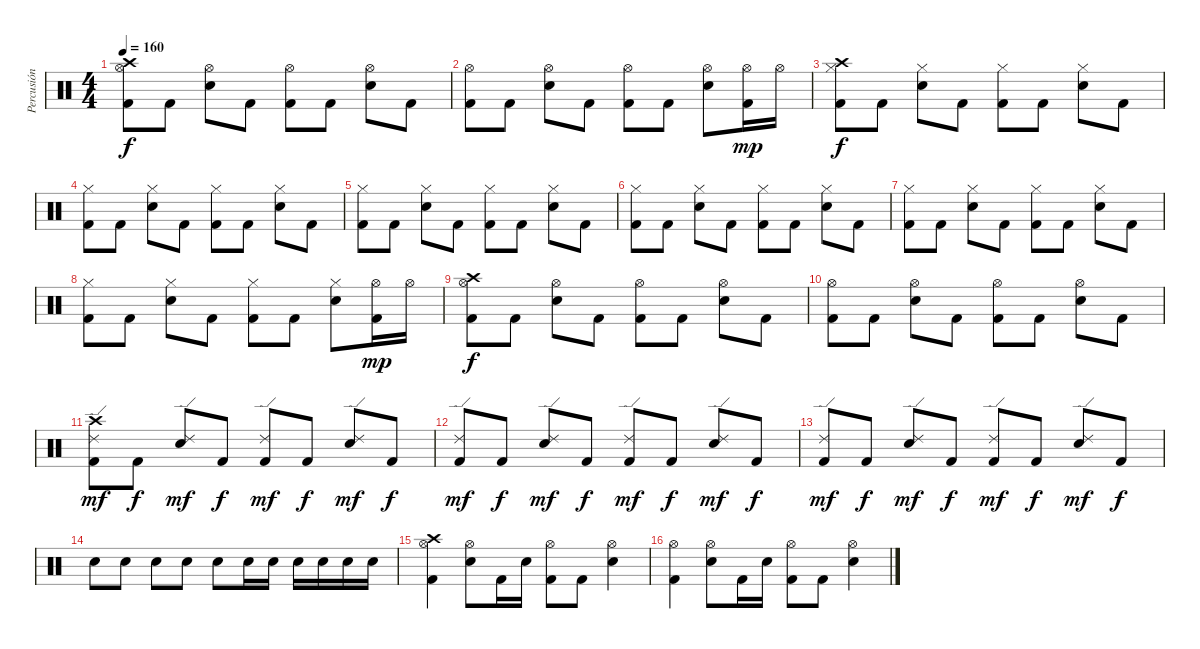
\track ("Percusión" "Percusión") {instrument percussion}
\staff {score}
\articulation defaults
\ts (4 4)
\tempo 160
\clef neutral
\ks c
("Crash high (hit)" "Hi-Hat (open)" "Kick (hit) 2").8{dy f} "Kick (hit) 2".8 ("Hi-Hat (open)" "Snare (hit) 2").8 "Kick (hit) 2".8 ("Hi-Hat (open)" "Kick (hit) 2").8 "Kick (hit) 2".8 ("Hi-Hat (open)" "Snare (hit) 2").8 "Kick (hit) 2".8 |
("Hi-Hat (open)" "Kick (hit) 2").8 "Kick (hit) 2".8 ("Hi-Hat (open)" "Snare (hit) 2").8 "Kick (hit) 2".8 ("Hi-Hat (open)" "Kick (hit) 2").8 "Kick (hit) 2".8 ("Hi-Hat (open)" "Snare (hit) 2").8 ("Hi-Hat (open)" "Kick (hit) 2").16{dy mp} "Hi-Hat (open)".16 |
("Crash high (hit)" "Hi-Hat (closed)" "Kick (hit) 2").8{dy f} "Kick (hit) 2".8 ("Hi-Hat (closed)" "Snare (hit) 2").8 "Kick (hit) 2".8 ("Hi-Hat (closed)" "Kick (hit) 2").8 "Kick (hit) 2".8 ("Hi-Hat (closed)" "Snare (hit) 2").8 "Kick (hit) 2".8 |
("Hi-Hat (closed)" "Kick (hit) 2").8 "Kick (hit) 2".8 ("Hi-Hat (closed)" "Snare (hit) 2").8 "Kick (hit) 2".8 ("Hi-Hat (closed)" "Kick (hit) 2").8 "Kick (hit) 2".8 ("Hi-Hat (closed)" "Snare (hit) 2").8 "Kick (hit) 2".8 |
("Hi-Hat (closed)" "Kick (hit) 2").8 "Kick (hit) 2".8 ("Hi-Hat (closed)" "Snare (hit) 2").8 "Kick (hit) 2".8 ("Hi-Hat (closed)" "Kick (hit) 2").8 "Kick (hit) 2".8 ("Hi-Hat (closed)" "Snare (hit) 2").8 "Kick (hit) 2".8 |
("Hi-Hat (closed)" "Kick (hit) 2").8 "Kick (hit) 2".8 ("Hi-Hat (closed)" "Snare (hit) 2").8 "Kick (hit) 2".8 ("Hi-Hat (closed)" "Kick (hit) 2").8 "Kick (hit) 2".8 ("Hi-Hat (closed)" "Snare (hit) 2").8 "Kick (hit) 2".8 |
("Hi-Hat (closed)" "Kick (hit) 2").8 "Kick (hit) 2".8 ("Hi-Hat (closed)" "Snare (hit) 2").8 "Kick (hit) 2".8 ("Hi-Hat (closed)" "Kick (hit) 2").8 "Kick (hit) 2".8 ("Hi-Hat (closed)" "Snare (hit) 2").8 "Kick (hit) 2".8 |
("Hi-Hat (closed)" "Kick (hit) 2").8 "Kick (hit) 2".8 ("Hi-Hat (closed)" "Snare (hit) 2").8 "Kick (hit) 2".8 ("Hi-Hat (closed)" "Kick (hit) 2").8 "Kick (hit) 2".8 ("Hi-Hat (closed)" "Snare (hit) 2").8 ("Hi-Hat (open)" "Kick (hit) 2").16{dy mp} "Hi-Hat (open)".16 |
("Crash high (hit)" "Hi-Hat (open)" "Kick (hit) 2").8{dy f} "Kick (hit) 2".8 ("Hi-Hat (open)" "Snare (hit) 2").8 "Kick (hit) 2".8 ("Hi-Hat (open)" "Kick (hit) 2").8 "Kick (hit) 2".8 ("Hi-Hat (open)" "Snare (hit) 2").8 "Kick (hit) 2".8 |
("Hi-Hat (open)" "Kick (hit) 2").8 "Kick (hit) 2".8 ("Hi-Hat (open)" "Snare (hit) 2").8 "Kick (hit) 2".8 ("Hi-Hat (open)" "Kick (hit) 2").8 "Kick (hit) 2".8 ("Hi-Hat (open)" "Snare (hit) 2").8 "Kick (hit) 2".8 |
("Crash high (hit)" "Ride (edge) 2" "Kick (hit) 2").8{dy mf} "Kick (hit) 2".8{dy f} ("Ride (edge) 2" "Snare (hit) 2").8{dy mf} "Kick (hit) 2".8{dy f} ("Ride (edge) 2" "Kick (hit) 2").8{dy mf} "Kick (hit) 2".8{dy f} ("Ride (edge) 2" "Snare (hit) 2").8{dy mf} "Kick (hit) 2".8{dy f} |
("Ride (edge) 2" "Kick (hit) 2").8{dy mf} "Kick (hit) 2".8{dy f} ("Ride (edge) 2" "Snare (hit) 2").8{dy mf} "Kick (hit) 2".8{dy f} ("Ride (edge) 2" "Kick (hit) 2").8{dy mf} "Kick (hit) 2".8{dy f} ("Ride (edge) 2" "Snare (hit) 2").8{dy mf} "Kick (hit) 2".8{dy f} |
("Ride (edge) 2" "Kick (hit) 2").8{dy mf} "Kick (hit) 2".8{dy f} ("Ride (edge) 2" "Snare (hit) 2").8{dy mf} "Kick (hit) 2".8{dy f} ("Ride (edge) 2" "Kick (hit) 2").8{dy mf} "Kick (hit) 2".8{dy f} ("Ride (edge) 2" "Snare (hit) 2").8{dy mf} "Kick (hit) 2".8{dy f} |
"Snare (hit) 2".8 "Snare (hit) 2".8 "Snare (hit) 2".8 "Snare (hit) 2".8 "Snare (hit) 2".8 "Snare (hit) 2".16 "Snare (hit) 2".16 "Snare (hit) 2".16 "Snare (hit) 2".16 "Snare (hit) 2".16 "Snare (hit) 2".16 |
("Crash high (hit)" "Hi-Hat (open)" "Kick (hit) 2").4 ("Hi-Hat (open)" "Snare (hit) 2").8 "Kick (hit) 2".16 "Snare (hit) 2".16 ("Hi-Hat (open)" "Kick (hit) 2").8 "Kick (hit) 2".8 ("Hi-Hat (open)" "Snare (hit) 2").4 |
("Hi-Hat (open)" "Kick (hit) 2").4 ("Hi-Hat (open)" "Snare (hit) 2").8 "Kick (hit) 2".16 "Snare (hit) 2".16 ("Hi-Hat (open)" "Kick (hit) 2").8 "Kick (hit) 2".8 ("Hi-Hat (open)" "Snare (hit) 2").4
